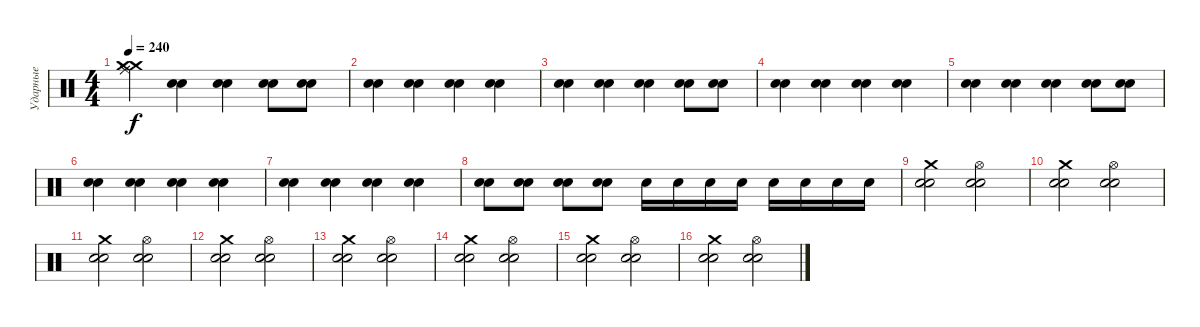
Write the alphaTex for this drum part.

\track ("Ударные" "Ударные") {instrument percussion}
\staff {score}
\articulation defaults
\ts (4 4)
\tempo 240
\clef neutral
\ks c
("Crash medium (hit)" "Ride (middle)" "Ride (middle)" "Crash medium (hit)").4{dy f} ("Snare (hit) 2" "Snare (hit) 2").4 ("Snare (hit) 2" "Snare (hit) 2").4 ("Snare (hit) 2" "Snare (hit) 2").8 ("Snare (hit) 2" "Snare (hit) 2").8 |
("Snare (hit) 2" "Snare (hit) 2").4 ("Snare (hit) 2" "Snare (hit) 2").4 ("Snare (hit) 2" "Snare (hit) 2").4 ("Snare (hit) 2" "Snare (hit) 2").4 |
("Snare (hit) 2" "Snare (hit) 2").4 ("Snare (hit) 2" "Snare (hit) 2").4 ("Snare (hit) 2" "Snare (hit) 2").4 ("Snare (hit) 2" "Snare (hit) 2").8 ("Snare (hit) 2" "Snare (hit) 2").8 |
("Snare (hit) 2" "Snare (hit) 2").4 ("Snare (hit) 2" "Snare (hit) 2").4 ("Snare (hit) 2" "Snare (hit) 2").4 ("Snare (hit) 2" "Snare (hit) 2").4 |
("Snare (hit) 2" "Snare (hit) 2").4 ("Snare (hit) 2" "Snare (hit) 2").4 ("Snare (hit) 2" "Snare (hit) 2").4 ("Snare (hit) 2" "Snare (hit) 2").8 ("Snare (hit) 2" "Snare (hit) 2").8 |
("Snare (hit) 2" "Snare (hit) 2").4 ("Snare (hit) 2" "Snare (hit) 2").4 ("Snare (hit) 2" "Snare (hit) 2").4 ("Snare (hit) 2" "Snare (hit) 2").4 |
("Snare (hit) 2" "Snare (hit) 2").4 ("Snare (hit) 2" "Snare (hit) 2").4 ("Snare (hit) 2" "Snare (hit) 2").4 ("Snare (hit) 2" "Snare (hit) 2").4 |
("Snare (hit) 2" "Snare (hit) 2").8 ("Snare (hit) 2" "Snare (hit) 2").8 ("Snare (hit) 2" "Snare (hit) 2").8 ("Snare (hit) 2" "Snare (hit) 2").8 "Snare (hit) 2".16 "Snare (hit) 2".16 "Snare (hit) 2".16 "Snare (hit) 2".16 "Snare (hit) 2".16 "Snare (hit) 2".16 "Snare (hit) 2".16 "Snare (hit) 2".16 |
("Crash medium (hit)" "Snare (hit) 2" "Snare (hit) 2").2 ("Hi-Hat (open)" "Snare (hit) 2" "Snare (hit) 2").2 |
("Crash medium (hit)" "Snare (hit) 2" "Snare (hit) 2").2 ("Hi-Hat (open)" "Snare (hit) 2" "Snare (hit) 2").2 |
("Crash medium (hit)" "Snare (hit) 2" "Snare (hit) 2").2 ("Hi-Hat (open)" "Snare (hit) 2" "Snare (hit) 2").2 |
("Crash medium (hit)" "Snare (hit) 2" "Snare (hit) 2").2 ("Hi-Hat (open)" "Snare (hit) 2" "Snare (hit) 2").2 |
("Crash medium (hit)" "Snare (hit) 2" "Snare (hit) 2").2 ("Hi-Hat (open)" "Snare (hit) 2" "Snare (hit) 2").2 |
("Crash medium (hit)" "Snare (hit) 2" "Snare (hit) 2").2 ("Hi-Hat (open)" "Snare (hit) 2" "Snare (hit) 2").2 |
("Crash medium (hit)" "Snare (hit) 2" "Snare (hit) 2").2 ("Hi-Hat (open)" "Snare (hit) 2" "Snare (hit) 2").2 |
("Crash medium (hit)" "Snare (hit) 2" "Snare (hit) 2").2 ("Hi-Hat (open)" "Snare (hit) 2" "Snare (hit) 2").2
